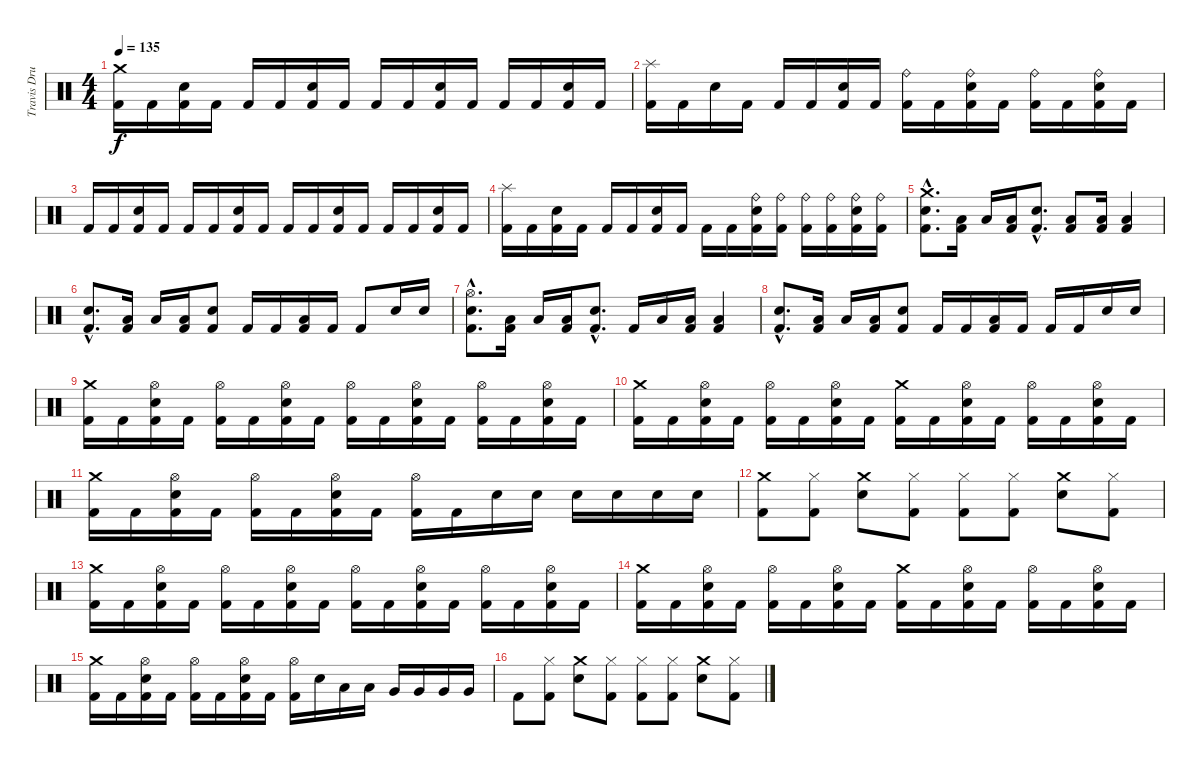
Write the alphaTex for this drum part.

\track ("Travis Drums" "Travis Dru") {instrument percussion}
\staff {score}
\articulation defaults
\ts (4 4)
\tempo 135
\clef neutral
\ks c
("Crash medium (hit)" "Kick (hit) 2").16{dy f} "Kick (hit) 2".16 ("Electric Snare (hit)" "Kick (hit) 2").16 "Kick (hit) 2".16 "Kick (hit) 2".16 "Kick (hit) 2".16 ("Electric Snare (hit)" "Kick (hit) 2").16 "Kick (hit) 2".16 "Kick (hit) 2".16 "Kick (hit) 2".16 ("Electric Snare (hit)" "Kick (hit) 2").16 "Kick (hit) 2".16 "Kick (hit) 2".16 "Kick (hit) 2".16 ("Electric Snare (hit)" "Kick (hit) 2").16 "Kick (hit) 2".16 |
("Splash (hit)" "Kick (hit) 2").16 "Kick (hit) 2".16 "Electric Snare (hit)".16 "Kick (hit) 2".16 "Kick (hit) 2".16 "Kick (hit) 2".16 ("Electric Snare (hit)" "Kick (hit) 2").16 "Kick (hit) 2".16 ("Ride (bell)" "Kick (hit) 2").16 "Kick (hit) 2".16 ("Ride (bell)" "Electric Snare (hit)" "Kick (hit) 2").16 "Kick (hit) 2".16 ("Ride (bell)" "Kick (hit) 2").16 "Kick (hit) 2".16 ("Ride (bell)" "Electric Snare (hit)" "Kick (hit) 2").16 "Kick (hit) 2".16 |
"Kick (hit) 2".16 "Kick (hit) 2".16 ("Electric Snare (hit)" "Kick (hit) 2").16 "Kick (hit) 2".16 "Kick (hit) 2".16 "Kick (hit) 2".16 ("Electric Snare (hit)" "Kick (hit) 2").16 "Kick (hit) 2".16 "Kick (hit) 2".16 "Kick (hit) 2".16 ("Electric Snare (hit)" "Kick (hit) 2").16 "Kick (hit) 2".16 "Kick (hit) 2".16 "Kick (hit) 2".16 ("Electric Snare (hit)" "Kick (hit) 2").16 "Kick (hit) 2".16 |
("Splash (hit)" "Kick (hit) 2").16 "Kick (hit) 2".16 ("Electric Snare (hit)" "Kick (hit) 2").16 "Kick (hit) 2".16 "Kick (hit) 2".16 "Kick (hit) 2".16 ("Electric Snare (hit)" "Kick (hit) 2").16 "Kick (hit) 2".16 "Kick (hit) 2".16 "Kick (hit) 2".16 ("Ride (bell)" "Electric Snare (hit)" "Kick (hit) 2").16 ("Ride (bell)" "Kick (hit) 2").16 ("Ride (bell)" "Kick (hit) 2").16 ("Ride (bell)" "Kick (hit) 2").16 ("Ride (bell)" "Electric Snare (hit)" "Kick (hit) 2").16 ("Ride (bell)" "Kick (hit) 2").16 |
("Crash medium (hit)"{hac} "Electric Snare (hit)"{hac} "Kick (hit) 2"{hac}).8{d} ("Low Floor Tom (hit)" "Kick (hit) 2").16 "Low Floor Tom (hit)".16 ("Low Floor Tom (hit)" "Kick (hit) 2").16 ("Electric Snare (hit)"{hac} "Kick (hit) 2"{hac}).8{d} ("Low Floor Tom (hit)" "Kick (hit) 2").8 ("Low Floor Tom (hit)" "Kick (hit) 2").16 ("Low Floor Tom (hit)" "Kick (hit) 2").4 |
("Electric Snare (hit)"{hac} "Kick (hit) 2"{hac}).8{d} ("Low Floor Tom (hit)" "Kick (hit) 2").16 "Low Floor Tom (hit)".16 ("Low Floor Tom (hit)" "Kick (hit) 2").16 ("Electric Snare (hit)" "Kick (hit) 2").8 "Kick (hit) 2".16 "Kick (hit) 2".16 ("Low Floor Tom (hit)" "Kick (hit) 2").16 "Kick (hit) 2".16 "Kick (hit) 2".8 "Electric Snare (hit)".16 "Electric Snare (hit)".16 |
("Hi-Hat (open)"{hac} "Electric Snare (hit)"{hac} "Kick (hit) 2"{hac}).8{d} ("Low Floor Tom (hit)" "Kick (hit) 2").16 "Low Floor Tom (hit)".16 ("Low Floor Tom (hit)" "Kick (hit) 2").16 ("Electric Snare (hit)"{hac} "Kick (hit) 2"{hac}).8{d} "Kick (hit) 2".16 "Low Floor Tom (hit)".16 ("Low Floor Tom (hit)" "Kick (hit) 2").16 ("Low Floor Tom (hit)" "Kick (hit) 2").4 |
("Electric Snare (hit)"{hac} "Kick (hit) 2"{hac}).8{d} ("Low Floor Tom (hit)" "Kick (hit) 2").16 "Low Floor Tom (hit)".16 ("Low Floor Tom (hit)" "Kick (hit) 2").16 ("Electric Snare (hit)" "Kick (hit) 2").8 "Kick (hit) 2".16 "Kick (hit) 2".16 ("Low Floor Tom (hit)" "Kick (hit) 2").16 "Kick (hit) 2".16 "Kick (hit) 2".16 "Kick (hit) 2".16 "Electric Snare (hit)".16 "Electric Snare (hit)".16 |
("Crash medium (hit)" "Kick (hit) 2").16 "Kick (hit) 2".16 ("Hi-Hat (open)" "Electric Snare (hit)" "Kick (hit) 2").16 "Kick (hit) 2".16 ("Hi-Hat (open)" "Kick (hit) 2").16 "Kick (hit) 2".16 ("Hi-Hat (open)" "Electric Snare (hit)" "Kick (hit) 2").16 "Kick (hit) 2".16 ("Hi-Hat (open)" "Kick (hit) 2").16 "Kick (hit) 2".16 ("Hi-Hat (open)" "Electric Snare (hit)" "Kick (hit) 2").16 "Kick (hit) 2".16 ("Hi-Hat (open)" "Kick (hit) 2").16 "Kick (hit) 2".16 ("Hi-Hat (open)" "Electric Snare (hit)" "Kick (hit) 2").16 "Kick (hit) 2".16 |
("Crash medium (hit)" "Kick (hit) 2").16 "Kick (hit) 2".16 ("Hi-Hat (open)" "Electric Snare (hit)" "Kick (hit) 2").16 "Kick (hit) 2".16 ("Hi-Hat (open)" "Kick (hit) 2").16 "Kick (hit) 2".16 ("Hi-Hat (open)" "Electric Snare (hit)" "Kick (hit) 2").16 "Kick (hit) 2".16 ("Crash medium (hit)" "Kick (hit) 2").16 "Kick (hit) 2".16 ("Hi-Hat (open)" "Electric Snare (hit)" "Kick (hit) 2").16 "Kick (hit) 2".16 ("Hi-Hat (open)" "Kick (hit) 2").16 "Kick (hit) 2".16 ("Hi-Hat (open)" "Electric Snare (hit)" "Kick (hit) 2").16 "Kick (hit) 2".16 |
("Crash medium (hit)" "Kick (hit) 2").16 "Kick (hit) 2".16 ("Hi-Hat (open)" "Electric Snare (hit)" "Kick (hit) 2").16 "Kick (hit) 2".16 ("Hi-Hat (open)" "Kick (hit) 2").16 "Kick (hit) 2".16 ("Hi-Hat (open)" "Electric Snare (hit)" "Kick (hit) 2").16 "Kick (hit) 2".16 ("Hi-Hat (open)" "Kick (hit) 2").16 "Kick (hit) 2".16 "Electric Snare (hit)".16 "Electric Snare (hit)".16 "Electric Snare (hit)".16 "Electric Snare (hit)".16 "Electric Snare (hit)".16 "Electric Snare (hit)".16 |
("Crash medium (hit)" "Kick (hit) 2").8 ("Hi-Hat (closed)" "Kick (hit) 2").8 ("Crash medium (hit)" "Electric Snare (hit)").8 ("Hi-Hat (closed)" "Kick (hit) 2").8 ("Hi-Hat (closed)" "Kick (hit) 2").8 ("Hi-Hat (closed)" "Kick (hit) 2").8 ("Crash medium (hit)" "Electric Snare (hit)").8 ("Hi-Hat (closed)" "Kick (hit) 2").8 |
("Crash medium (hit)" "Kick (hit) 2").16 "Kick (hit) 2".16 ("Hi-Hat (open)" "Electric Snare (hit)" "Kick (hit) 2").16 "Kick (hit) 2".16 ("Hi-Hat (open)" "Kick (hit) 2").16 "Kick (hit) 2".16 ("Hi-Hat (open)" "Electric Snare (hit)" "Kick (hit) 2").16 "Kick (hit) 2".16 ("Hi-Hat (open)" "Kick (hit) 2").16 "Kick (hit) 2".16 ("Hi-Hat (open)" "Electric Snare (hit)" "Kick (hit) 2").16 "Kick (hit) 2".16 ("Hi-Hat (open)" "Kick (hit) 2").16 "Kick (hit) 2".16 ("Hi-Hat (open)" "Electric Snare (hit)" "Kick (hit) 2").16 "Kick (hit) 2".16 |
("Crash medium (hit)" "Kick (hit) 2").16 "Kick (hit) 2".16 ("Hi-Hat (open)" "Electric Snare (hit)" "Kick (hit) 2").16 "Kick (hit) 2".16 ("Hi-Hat (open)" "Kick (hit) 2").16 "Kick (hit) 2".16 ("Hi-Hat (open)" "Electric Snare (hit)" "Kick (hit) 2").16 "Kick (hit) 2".16 ("Crash medium (hit)" "Kick (hit) 2").16 "Kick (hit) 2".16 ("Hi-Hat (open)" "Electric Snare (hit)" "Kick (hit) 2").16 "Kick (hit) 2".16 ("Hi-Hat (open)" "Kick (hit) 2").16 "Kick (hit) 2".16 ("Hi-Hat (open)" "Electric Snare (hit)" "Kick (hit) 2").16 "Kick (hit) 2".16 |
("Crash medium (hit)" "Kick (hit) 2").16 "Kick (hit) 2".16 ("Hi-Hat (open)" "Electric Snare (hit)" "Kick (hit) 2").16 "Kick (hit) 2".16 ("Hi-Hat (open)" "Kick (hit) 2").16 "Kick (hit) 2".16 ("Hi-Hat (open)" "Electric Snare (hit)" "Kick (hit) 2").16 "Kick (hit) 2".16 ("Hi-Hat (open)" "Kick (hit) 2").16 "Electric Snare (hit)".16 "Low Tom (hit)".16 "Low Tom (hit)".16 "Very Low Tom (hit)".16 "Very Low Tom (hit)".16 "Very Low Tom (hit)".16 "Very Low Tom (hit)".16 |
"Kick (hit) 2".8 ("Hi-Hat (closed)" "Kick (hit) 2").8 ("Crash medium (hit)" "Electric Snare (hit)").8 ("Hi-Hat (closed)" "Kick (hit) 2").8 ("Hi-Hat (closed)" "Kick (hit) 2").8 ("Hi-Hat (closed)" "Kick (hit) 2").8 ("Crash medium (hit)" "Electric Snare (hit)").8 ("Hi-Hat (closed)" "Kick (hit) 2").8
